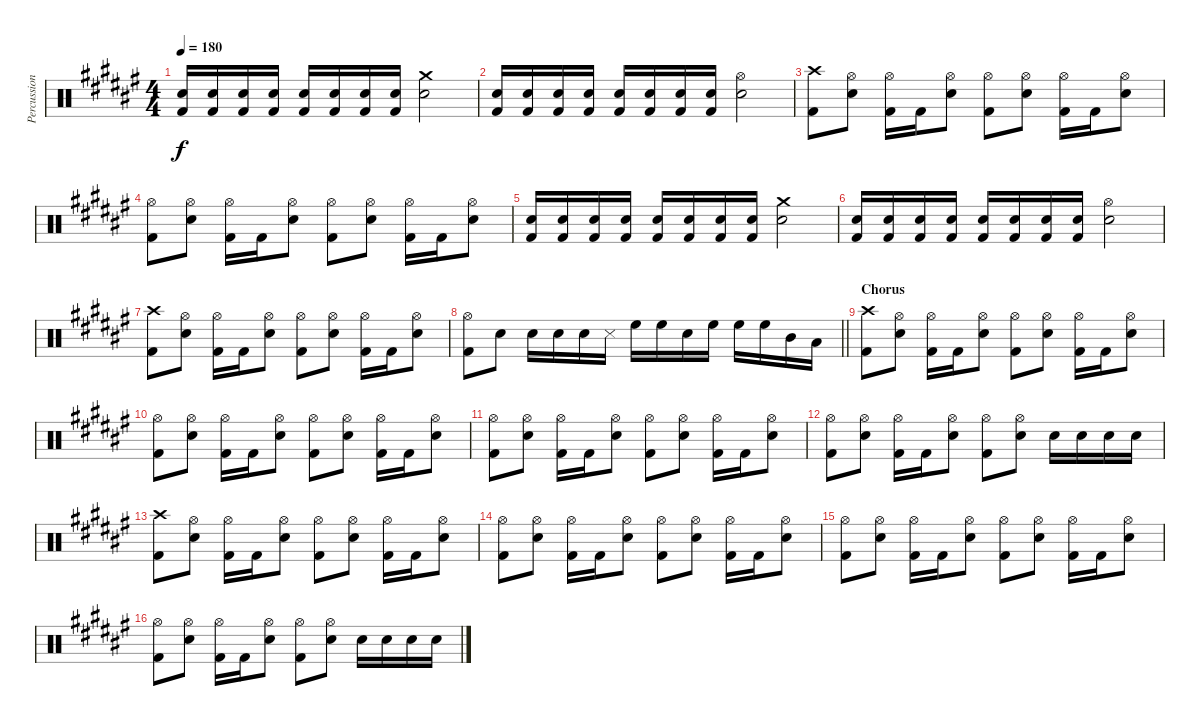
\track ("Percussion" "Percussion") {instrument percussion}
\staff {score}
\articulation defaults
\ts (4 4)
\tempo 180
\clef neutral
\ks f#
("Snare (hit) 2" "Kick (hit) 2").16{dy f} ("Snare (hit) 2" "Kick (hit) 2").16 ("Snare (hit) 2" "Kick (hit) 2").16 ("Snare (hit) 2" "Kick (hit) 2").16 ("Snare (hit) 2" "Kick (hit) 2").16 ("Snare (hit) 2" "Kick (hit) 2").16 ("Snare (hit) 2" "Kick (hit) 2").16 ("Snare (hit) 2" "Kick (hit) 2").16 ("Crash medium (hit)" "Snare (hit) 2").2 |
("Snare (hit) 2" "Kick (hit) 2").16 ("Snare (hit) 2" "Kick (hit) 2").16 ("Snare (hit) 2" "Kick (hit) 2").16 ("Snare (hit) 2" "Kick (hit) 2").16 ("Snare (hit) 2" "Kick (hit) 2").16 ("Snare (hit) 2" "Kick (hit) 2").16 ("Snare (hit) 2" "Kick (hit) 2").16 ("Snare (hit) 2" "Kick (hit) 2").16 ("Hi-Hat (open)" "Snare (hit) 2").2 |
("Crash high (hit)" "Kick (hit) 2").8 ("Hi-Hat (open)" "Snare (hit) 2").8 ("Hi-Hat (open)" "Kick (hit) 2").16 "Kick (hit) 2".16 ("Hi-Hat (open)" "Snare (hit) 2").8 ("Hi-Hat (open)" "Kick (hit) 2").8 ("Hi-Hat (open)" "Snare (hit) 2").8 ("Hi-Hat (open)" "Kick (hit) 2").16 "Kick (hit) 2".16 ("Hi-Hat (open)" "Snare (hit) 2").8 |
("Hi-Hat (open)" "Kick (hit) 2").8 ("Hi-Hat (open)" "Snare (hit) 2").8 ("Hi-Hat (open)" "Kick (hit) 2").16 "Kick (hit) 2".16 ("Hi-Hat (open)" "Snare (hit) 2").8 ("Hi-Hat (open)" "Kick (hit) 2").8 ("Hi-Hat (open)" "Snare (hit) 2").8 ("Hi-Hat (open)" "Kick (hit) 2").16 "Kick (hit) 2".16 ("Hi-Hat (open)" "Snare (hit) 2").8 |
("Snare (hit) 2" "Kick (hit) 2").16 ("Snare (hit) 2" "Kick (hit) 2").16 ("Snare (hit) 2" "Kick (hit) 2").16 ("Snare (hit) 2" "Kick (hit) 2").16 ("Snare (hit) 2" "Kick (hit) 2").16 ("Snare (hit) 2" "Kick (hit) 2").16 ("Snare (hit) 2" "Kick (hit) 2").16 ("Snare (hit) 2" "Kick (hit) 2").16 ("Crash medium (hit)" "Snare (hit) 2").2 |
("Snare (hit) 2" "Kick (hit) 2").16 ("Snare (hit) 2" "Kick (hit) 2").16 ("Snare (hit) 2" "Kick (hit) 2").16 ("Snare (hit) 2" "Kick (hit) 2").16 ("Snare (hit) 2" "Kick (hit) 2").16 ("Snare (hit) 2" "Kick (hit) 2").16 ("Snare (hit) 2" "Kick (hit) 2").16 ("Snare (hit) 2" "Kick (hit) 2").16 ("Hi-Hat (open)" "Snare (hit) 2").2 |
("Crash high (hit)" "Kick (hit) 2").8 ("Hi-Hat (open)" "Snare (hit) 2").8 ("Hi-Hat (open)" "Kick (hit) 2").16 "Kick (hit) 2".16 ("Hi-Hat (open)" "Snare (hit) 2").8 ("Hi-Hat (open)" "Kick (hit) 2").8 ("Hi-Hat (open)" "Snare (hit) 2").8 ("Hi-Hat (open)" "Kick (hit) 2").16 "Kick (hit) 2".16 ("Hi-Hat (open)" "Snare (hit) 2").8 |
\barLineRight lightlight
("Hi-Hat (open)" "Kick (hit) 2").8 "Snare (hit) 2".8 "Snare (hit) 2".16 "Snare (hit) 2".16 "Snare (hit) 2".16 "Snare (side stick) 3".16 "High Floor Tom (hit)".16 "High Floor Tom (hit)".16 "Snare (hit) 2".16 "High Floor Tom (hit)".16 "High Floor Tom (hit)".16 "High Floor Tom (hit)".16 "Mid Tom (hit)".16 "Low Floor Tom (hit)".16 |
\section ("" "Chorus")
("Crash high (hit)" "Kick (hit) 2").8 ("Hi-Hat (open)" "Snare (hit) 2").8 ("Hi-Hat (open)" "Kick (hit) 2").16 "Kick (hit) 2".16 ("Hi-Hat (open)" "Snare (hit) 2").8 ("Hi-Hat (open)" "Kick (hit) 2").8 ("Hi-Hat (open)" "Snare (hit) 2").8 ("Hi-Hat (open)" "Kick (hit) 2").16 "Kick (hit) 2".16 ("Hi-Hat (open)" "Snare (hit) 2").8 |
("Hi-Hat (open)" "Kick (hit) 2").8 ("Hi-Hat (open)" "Snare (hit) 2").8 ("Hi-Hat (open)" "Kick (hit) 2").16 "Kick (hit) 2".16 ("Hi-Hat (open)" "Snare (hit) 2").8 ("Hi-Hat (open)" "Kick (hit) 2").8 ("Hi-Hat (open)" "Snare (hit) 2").8 ("Hi-Hat (open)" "Kick (hit) 2").16 "Kick (hit) 2".16 ("Hi-Hat (open)" "Snare (hit) 2").8 |
("Hi-Hat (open)" "Kick (hit) 2").8 ("Hi-Hat (open)" "Snare (hit) 2").8 ("Hi-Hat (open)" "Kick (hit) 2").16 "Kick (hit) 2".16 ("Hi-Hat (open)" "Snare (hit) 2").8 ("Hi-Hat (open)" "Kick (hit) 2").8 ("Hi-Hat (open)" "Snare (hit) 2").8 ("Hi-Hat (open)" "Kick (hit) 2").16 "Kick (hit) 2".16 ("Hi-Hat (open)" "Snare (hit) 2").8 |
("Hi-Hat (open)" "Kick (hit) 2").8 ("Hi-Hat (open)" "Snare (hit) 2").8 ("Hi-Hat (open)" "Kick (hit) 2").16 "Kick (hit) 2".16 ("Hi-Hat (open)" "Snare (hit) 2").8 ("Hi-Hat (open)" "Kick (hit) 2").8 ("Hi-Hat (open)" "Snare (hit) 2").8 "Snare (hit) 2".16 "Snare (hit) 2".16 "Snare (hit) 2".16 "Snare (hit) 2".16 |
("Crash high (hit)" "Kick (hit) 2").8 ("Hi-Hat (open)" "Snare (hit) 2").8 ("Hi-Hat (open)" "Kick (hit) 2").16 "Kick (hit) 2".16 ("Hi-Hat (open)" "Snare (hit) 2").8 ("Hi-Hat (open)" "Kick (hit) 2").8 ("Hi-Hat (open)" "Snare (hit) 2").8 ("Hi-Hat (open)" "Kick (hit) 2").16 "Kick (hit) 2".16 ("Hi-Hat (open)" "Snare (hit) 2").8 |
("Hi-Hat (open)" "Kick (hit) 2").8 ("Hi-Hat (open)" "Snare (hit) 2").8 ("Hi-Hat (open)" "Kick (hit) 2").16 "Kick (hit) 2".16 ("Hi-Hat (open)" "Snare (hit) 2").8 ("Hi-Hat (open)" "Kick (hit) 2").8 ("Hi-Hat (open)" "Snare (hit) 2").8 ("Hi-Hat (open)" "Kick (hit) 2").16 "Kick (hit) 2".16 ("Hi-Hat (open)" "Snare (hit) 2").8 |
("Hi-Hat (open)" "Kick (hit) 2").8 ("Hi-Hat (open)" "Snare (hit) 2").8 ("Hi-Hat (open)" "Kick (hit) 2").16 "Kick (hit) 2".16 ("Hi-Hat (open)" "Snare (hit) 2").8 ("Hi-Hat (open)" "Kick (hit) 2").8 ("Hi-Hat (open)" "Snare (hit) 2").8 ("Hi-Hat (open)" "Kick (hit) 2").16 "Kick (hit) 2".16 ("Hi-Hat (open)" "Snare (hit) 2").8 |
("Hi-Hat (open)" "Kick (hit) 2").8 ("Hi-Hat (open)" "Snare (hit) 2").8 ("Hi-Hat (open)" "Kick (hit) 2").16 "Kick (hit) 2".16 ("Hi-Hat (open)" "Snare (hit) 2").8 ("Hi-Hat (open)" "Kick (hit) 2").8 ("Hi-Hat (open)" "Snare (hit) 2").8 "Snare (hit) 2".16 "Snare (hit) 2".16 "Snare (hit) 2".16 "Snare (hit) 2".16
